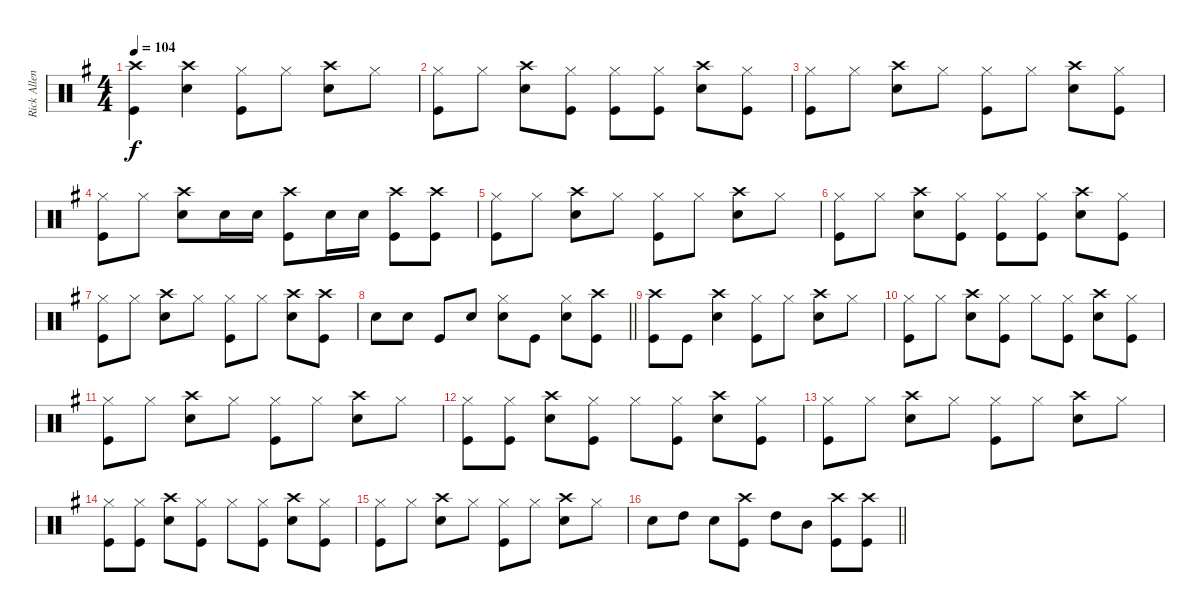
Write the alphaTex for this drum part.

\track ("Rick Allen" "Rick Allen") {instrument percussion}
\staff {score}
\articulation defaults
\ts (4 4)
\tempo 104
\clef neutral
\ks eminor
("Crash high (hit)" "Kick (hit)").4{dy f} ("Crash high (hit)" "Snare (hit) 2").4 ("Hi-Hat (closed)" "Kick (hit)").8 "Hi-Hat (closed)".8 ("Crash high (hit)" "Snare (hit) 2").8 "Hi-Hat (closed)".8 |
("Hi-Hat (closed)" "Kick (hit)").8 "Hi-Hat (closed)".8 ("Crash high (hit)" "Snare (hit) 2").8 ("Hi-Hat (closed)" "Kick (hit)").8 ("Hi-Hat (closed)" "Kick (hit)").8 ("Hi-Hat (closed)" "Kick (hit)").8 ("Crash high (hit)" "Snare (hit) 2").8 ("Hi-Hat (closed)" "Kick (hit)").8 |
("Hi-Hat (closed)" "Kick (hit)").8 "Hi-Hat (closed)".8 ("Crash high (hit)" "Snare (hit) 2").8 "Hi-Hat (closed)".8 ("Hi-Hat (closed)" "Kick (hit)").8 "Hi-Hat (closed)".8 ("Crash high (hit)" "Snare (hit) 2").8 ("Hi-Hat (closed)" "Kick (hit)").8 |
("Hi-Hat (closed)" "Kick (hit)").8 "Hi-Hat (closed)".8 ("Crash high (hit)" "Snare (hit) 2").8 "Snare (hit) 2".16 "Snare (hit) 2".16 ("Crash high (hit)" "Kick (hit)").8 "Snare (hit) 2".16 "Snare (hit) 2".16 ("Crash high (hit)" "Kick (hit)").8 ("Crash high (hit)" "Kick (hit)").8 |
("Hi-Hat (closed)" "Kick (hit)").8 "Hi-Hat (closed)".8 ("Crash high (hit)" "Snare (hit) 2").8 "Hi-Hat (closed)".8 ("Hi-Hat (closed)" "Kick (hit)").8 "Hi-Hat (closed)".8 ("Crash high (hit)" "Snare (hit) 2").8 "Hi-Hat (closed)".8 |
("Hi-Hat (closed)" "Kick (hit)").8 "Hi-Hat (closed)".8 ("Crash high (hit)" "Snare (hit) 2").8 ("Hi-Hat (closed)" "Kick (hit)").8 ("Hi-Hat (closed)" "Kick (hit)").8 ("Hi-Hat (closed)" "Kick (hit)").8 ("Crash high (hit)" "Snare (hit) 2").8 ("Hi-Hat (closed)" "Kick (hit)").8 |
("Hi-Hat (closed)" "Kick (hit)").8 "Hi-Hat (closed)".8 ("Crash high (hit)" "Snare (hit) 2").8 "Hi-Hat (closed)".8 ("Hi-Hat (closed)" "Kick (hit)").8 "Hi-Hat (closed)".8 ("Crash high (hit)" "Snare (hit) 2").8 ("Crash high (hit)" "Kick (hit)").8 |
\barLineRight lightlight "Snare (hit) 2".8 "Snare (hit) 2".8 "Kick (hit)".8 "Snare (hit) 2".8
("Hi-Hat (closed)" "Snare (hit) 2").8 "Kick (hit)".8 ("Hi-Hat (closed)" "Snare (hit) 2").8 ("Crash high (hit)" "Kick (hit)").8 |
("Crash high (hit)" "Kick (hit)").8 "Kick (hit)".8 ("Crash high (hit)" "Snare (hit) 2").4 ("Hi-Hat (closed)" "Kick (hit)").8 "Hi-Hat (closed)".8 ("Crash high (hit)" "Snare (hit) 2").8 "Hi-Hat (closed)".8 |
("Hi-Hat (closed)" "Kick (hit)").8 "Hi-Hat (closed)".8 ("Crash high (hit)" "Snare (hit) 2").8 ("Hi-Hat (closed)" "Kick (hit)").8 "Hi-Hat (closed)".8 ("Hi-Hat (closed)" "Kick (hit)").8 ("Crash high (hit)" "Snare (hit) 2").8 ("Hi-Hat (closed)" "Kick (hit)").8 |
("Hi-Hat (closed)" "Kick (hit)").8 "Hi-Hat (closed)".8 ("Crash high (hit)" "Snare (hit) 2").8 "Hi-Hat (closed)".8 ("Hi-Hat (closed)" "Kick (hit)").8 "Hi-Hat (closed)".8 ("Crash high (hit)" "Snare (hit) 2").8 "Hi-Hat (closed)".8 |
("Hi-Hat (closed)" "Kick (hit)").8 ("Hi-Hat (closed)" "Kick (hit)").8 ("Crash high (hit)" "Snare (hit) 2").8 ("Hi-Hat (closed)" "Kick (hit)").8 "Hi-Hat (closed)".8 ("Hi-Hat (closed)" "Kick (hit)").8 ("Crash high (hit)" "Snare (hit) 2").8 ("Hi-Hat (closed)" "Kick (hit)").8 |
("Hi-Hat (closed)" "Kick (hit)").8 "Hi-Hat (closed)".8 ("Crash high (hit)" "Snare (hit) 2").8 "Hi-Hat (closed)".8 ("Hi-Hat (closed)" "Kick (hit)").8 "Hi-Hat (closed)".8 ("Crash high (hit)" "Snare (hit) 2").8 "Hi-Hat (closed)".8 |
("Hi-Hat (closed)" "Kick (hit)").8 ("Hi-Hat (closed)" "Kick (hit)").8 ("Crash high (hit)" "Snare (hit) 2").8 ("Hi-Hat (closed)" "Kick (hit)").8 "Hi-Hat (closed)".8 ("Hi-Hat (closed)" "Kick (hit)").8 ("Crash high (hit)" "Snare (hit) 2").8 ("Hi-Hat (closed)" "Kick (hit)").8 |
("Hi-Hat (closed)" "Kick (hit)").8 "Hi-Hat (closed)".8 ("Crash high (hit)" "Snare (hit) 2").8 "Hi-Hat (closed)".8 ("Hi-Hat (closed)" "Kick (hit)").8 "Hi-Hat (closed)".8 ("Crash high (hit)" "Snare (hit) 2").8 "Hi-Hat (closed)".8 |
\barLineRight lightlight "Snare (hit) 2".8 "High Tom (hit)".8 "Snare (hit) 2".8
("Crash high (hit)" "Kick (hit)").8 "High Tom (hit)".8 "Mid Tom (hit)".8 ("Crash high (hit)" "Kick (hit)").8 ("Crash high (hit)" "Kick (hit)").8
